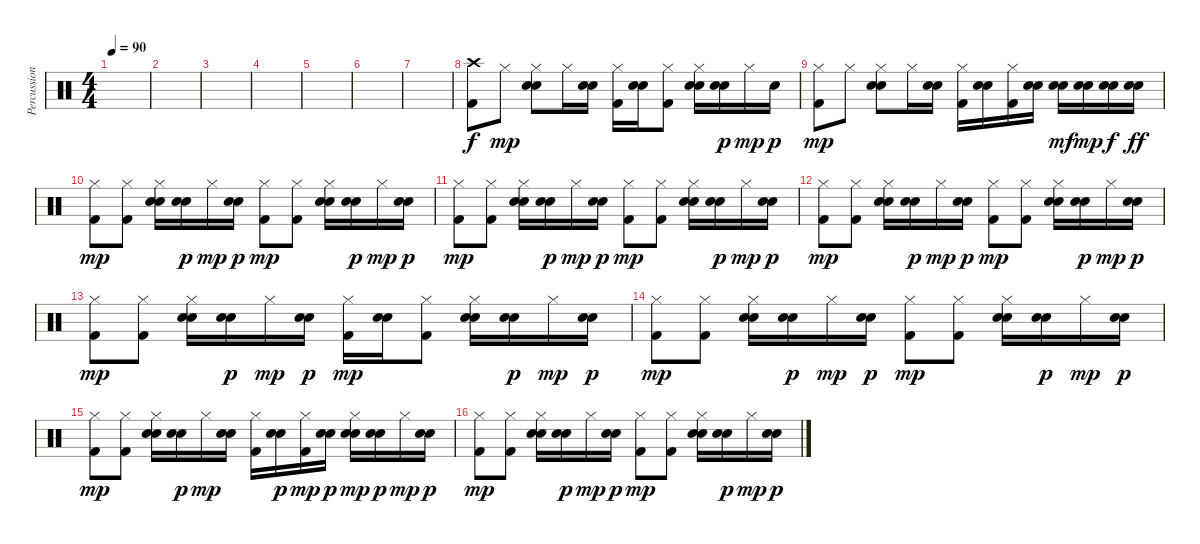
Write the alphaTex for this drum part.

\track ("Percussion" "Percussion") {instrument percussion}
\staff {score}
\articulation defaults
\ts (4 4)
\tempo 90
\clef neutral
\ks c
|
|
|
|
|
|
|
("Crash high (hit)" "Kick (hit) 2").8 "Hi-Hat (closed)".8{dy mp} ("Hi-Hat (closed)" "Electric Snare (hit)" "Snare (hit) 2").8 "Hi-Hat (closed)".16 ("Electric Snare (hit)" "Snare (hit) 2").16 ("Hi-Hat (closed)" "Kick (hit) 2").16 ("Electric Snare (hit)" "Snare (hit) 2").16 ("Hi-Hat (closed)" "Kick (hit) 2").8 ("Hi-Hat (closed)" "Electric Snare (hit)" "Snare (hit) 2").16 ("Electric Snare (hit)" "Snare (hit) 2").16{dy p} "Hi-Hat (closed)".16{dy mp} "Snare (hit) 2".16{dy p} |
("Hi-Hat (closed)" "Kick (hit) 2").8{dy mp} "Hi-Hat (closed)".8 ("Hi-Hat (closed)" "Electric Snare (hit)" "Snare (hit) 2").8 "Hi-Hat (closed)".16 ("Electric Snare (hit)" "Snare (hit) 2").16 ("Hi-Hat (closed)" "Kick (hit) 2").16 ("Electric Snare (hit)" "Snare (hit) 2").16 ("Hi-Hat (closed)" "Kick (hit) 2").16 ("Electric Snare (hit)" "Snare (hit) 2").16 ("Electric Snare (hit)" "Snare (hit) 2").16{dy mf} ("Electric Snare (hit)" "Snare (hit) 2").16{dy mp} ("Electric Snare (hit)" "Snare (hit) 2").16{dy f} ("Electric Snare (hit)" "Snare (hit) 2").16{dy ff} |
("Hi-Hat (closed)" "Kick (hit) 2").8{dy mp} ("Hi-Hat (closed)" "Kick (hit) 2").8 ("Hi-Hat (closed)" "Electric Snare (hit)" "Snare (hit) 2").16 ("Electric Snare (hit)" "Snare (hit) 2").16{dy p} "Hi-Hat (closed)".16{dy mp} ("Electric Snare (hit)" "Snare (hit) 2").16{dy p} ("Hi-Hat (closed)" "Kick (hit) 2").8{dy mp} ("Hi-Hat (closed)" "Kick (hit) 2").8 ("Hi-Hat (closed)" "Electric Snare (hit)" "Snare (hit) 2").16 ("Electric Snare (hit)" "Snare (hit) 2").16{dy p} "Hi-Hat (closed)".16{dy mp} ("Electric Snare (hit)" "Snare (hit) 2").16{dy p} |
("Hi-Hat (closed)" "Kick (hit) 2").8{dy mp} ("Hi-Hat (closed)" "Kick (hit) 2").8 ("Hi-Hat (closed)" "Electric Snare (hit)" "Snare (hit) 2").16 ("Electric Snare (hit)" "Snare (hit) 2").16{dy p} "Hi-Hat (closed)".16{dy mp} ("Electric Snare (hit)" "Snare (hit) 2").16{dy p} ("Hi-Hat (closed)" "Kick (hit) 2").8{dy mp} ("Hi-Hat (closed)" "Kick (hit) 2").8 ("Hi-Hat (closed)" "Electric Snare (hit)" "Snare (hit) 2").16 ("Electric Snare (hit)" "Snare (hit) 2").16{dy p} "Hi-Hat (closed)".16{dy mp} ("Electric Snare (hit)" "Snare (hit) 2").16{dy p} |
("Hi-Hat (closed)" "Kick (hit) 2").8{dy mp} ("Hi-Hat (closed)" "Kick (hit) 2").8 ("Hi-Hat (closed)" "Electric Snare (hit)" "Snare (hit) 2").16 ("Electric Snare (hit)" "Snare (hit) 2").16{dy p} "Hi-Hat (closed)".16{dy mp} ("Electric Snare (hit)" "Snare (hit) 2").16{dy p} ("Hi-Hat (closed)" "Kick (hit) 2").8{dy mp} ("Hi-Hat (closed)" "Kick (hit) 2").8 ("Hi-Hat (closed)" "Electric Snare (hit)" "Snare (hit) 2").16 ("Electric Snare (hit)" "Snare (hit) 2").16{dy p} "Hi-Hat (closed)".16{dy mp} ("Electric Snare (hit)" "Snare (hit) 2").16{dy p} |
("Hi-Hat (closed)" "Kick (hit) 2").8{dy mp} ("Hi-Hat (closed)" "Kick (hit) 2").8 ("Hi-Hat (closed)" "Electric Snare (hit)" "Snare (hit) 2").16 ("Electric Snare (hit)" "Snare (hit) 2").16{dy p} "Hi-Hat (closed)".16{dy mp} ("Electric Snare (hit)" "Snare (hit) 2").16{dy p} ("Hi-Hat (closed)" "Kick (hit) 2").16{dy mp} ("Electric Snare (hit)" "Snare (hit) 2").16 ("Hi-Hat (closed)" "Kick (hit) 2").8 ("Hi-Hat (closed)" "Electric Snare (hit)" "Snare (hit) 2").16 ("Electric Snare (hit)" "Snare (hit) 2").16{dy p} "Hi-Hat (closed)".16{dy mp} ("Electric Snare (hit)" "Snare (hit) 2").16{dy p} |
("Hi-Hat (closed)" "Kick (hit) 2").8{dy mp} ("Hi-Hat (closed)" "Kick (hit) 2").8 ("Hi-Hat (closed)" "Electric Snare (hit)" "Snare (hit) 2").16 ("Electric Snare (hit)" "Snare (hit) 2").16{dy p} "Hi-Hat (closed)".16{dy mp} ("Electric Snare (hit)" "Snare (hit) 2").16{dy p} ("Hi-Hat (closed)" "Kick (hit) 2").8{dy mp} ("Hi-Hat (closed)" "Kick (hit) 2").8 ("Hi-Hat (closed)" "Electric Snare (hit)" "Snare (hit) 2").16 ("Electric Snare (hit)" "Snare (hit) 2").16{dy p} "Hi-Hat (closed)".16{dy mp} ("Electric Snare (hit)" "Snare (hit) 2").16{dy p} |
("Hi-Hat (closed)" "Kick (hit) 2").8{dy mp} ("Hi-Hat (closed)" "Kick (hit) 2").8 ("Hi-Hat (closed)" "Electric Snare (hit)" "Snare (hit) 2").16 ("Electric Snare (hit)" "Snare (hit) 2").16{dy p} "Hi-Hat (closed)".16{dy mp} ("Electric Snare (hit)" "Snare (hit) 2").16 ("Hi-Hat (closed)" "Kick (hit) 2").16 ("Electric Snare (hit)" "Snare (hit) 2").16{dy p} ("Hi-Hat (closed)" "Kick (hit) 2").16{dy mp} ("Electric Snare (hit)" "Snare (hit) 2").16{dy p} ("Hi-Hat (closed)" "Electric Snare (hit)" "Snare (hit) 2").16{dy mp} ("Electric Snare (hit)" "Snare (hit) 2").16{dy p} "Hi-Hat (closed)".16{dy mp} ("Electric Snare (hit)" "Snare (hit) 2").16{dy p} |
("Hi-Hat (closed)" "Kick (hit) 2").8{dy mp} ("Hi-Hat (closed)" "Kick (hit) 2").8 ("Hi-Hat (closed)" "Electric Snare (hit)" "Snare (hit) 2").16 ("Electric Snare (hit)" "Snare (hit) 2").16{dy p} "Hi-Hat (closed)".16{dy mp} ("Electric Snare (hit)" "Snare (hit) 2").16{dy p} ("Hi-Hat (closed)" "Kick (hit) 2").8{dy mp} ("Hi-Hat (closed)" "Kick (hit) 2").8 ("Hi-Hat (closed)" "Electric Snare (hit)" "Snare (hit) 2").16 ("Electric Snare (hit)" "Snare (hit) 2").16{dy p} "Hi-Hat (closed)".16{dy mp} ("Electric Snare (hit)" "Snare (hit) 2").16{dy p}
